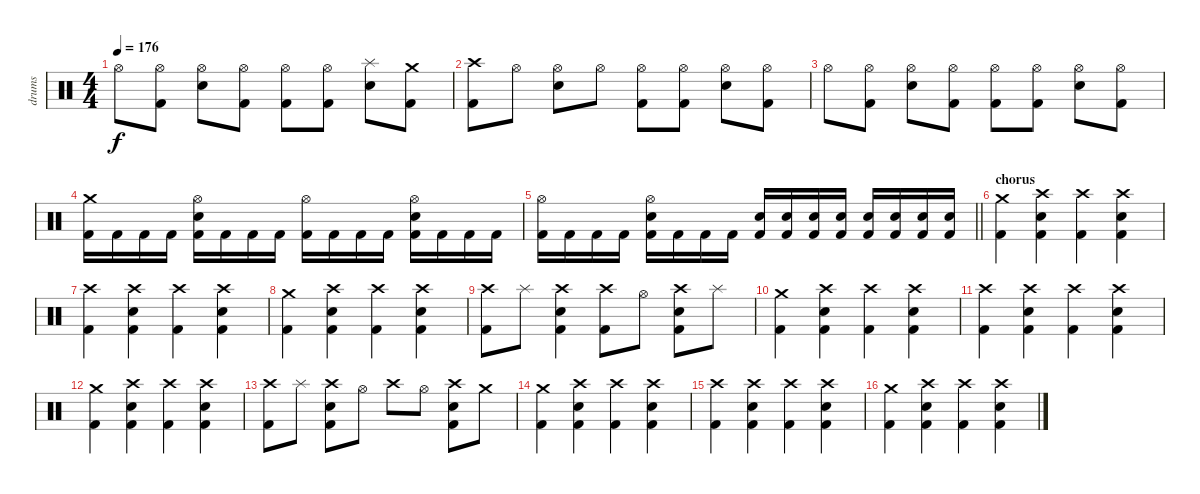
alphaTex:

\track ("drums" "drums") {instrument percussion}
\staff {score}
\articulation defaults
\ts (4 4)
\tempo 176
\clef neutral
\ks c "Hi-Hat (open)".8{dy f}
("Hi-Hat (open)" "Kick (hit) 2").8 ("Hi-Hat (open)" "Snare (hit) 2").8 ("Hi-Hat (open)" "Kick (hit) 2").8 ("Hi-Hat (open)" "Kick (hit) 2").8 ("Hi-Hat (open)" "Kick (hit) 2").8 ("Splash (hit)" "Snare (hit) 2").8 ("Crash medium (hit)" "Kick (hit) 2").8 |
("Crash high (hit)" "Kick (hit) 2").8 "Hi-Hat (open)".8 ("Hi-Hat (open)" "Snare (hit) 2").8 "Hi-Hat (open)".8 ("Hi-Hat (open)" "Kick (hit) 2").8 ("Hi-Hat (open)" "Kick (hit) 2").8 ("Hi-Hat (open)" "Snare (hit) 2").8 ("Hi-Hat (open)" "Kick (hit) 2").8 |
"Hi-Hat (open)".8 ("Hi-Hat (open)" "Kick (hit) 2").8 ("Hi-Hat (open)" "Snare (hit) 2").8 ("Hi-Hat (open)" "Kick (hit) 2").8 ("Hi-Hat (open)" "Kick (hit) 2").8 ("Hi-Hat (open)" "Kick (hit) 2").8 ("Hi-Hat (open)" "Snare (hit) 2").8 ("Hi-Hat (open)" "Kick (hit) 2").8 |
("Crash medium (hit)" "Kick (hit) 2").16 "Kick (hit) 2".16 "Kick (hit) 2".16 "Kick (hit) 2".16 ("Hi-Hat (open)" "Snare (hit) 2" "Kick (hit) 2").16 "Kick (hit) 2".16 "Kick (hit) 2".16 "Kick (hit) 2".16 ("Hi-Hat (open)" "Kick (hit) 2").16 "Kick (hit) 2".16 "Kick (hit) 2".16 "Kick (hit) 2".16 ("Hi-Hat (open)" "Snare (hit) 2" "Kick (hit) 2").16 "Kick (hit) 2".16 "Kick (hit) 2".16 "Kick (hit) 2".16 |
\barLineRight lightlight
("Hi-Hat (open)" "Kick (hit) 2").16 "Kick (hit) 2".16 "Kick (hit) 2".16 "Kick (hit) 2".16 ("Hi-Hat (open)" "Snare (hit) 2" "Kick (hit) 2").16 "Kick (hit) 2".16 "Kick (hit) 2".16 "Kick (hit) 2".16 ("Snare (hit) 2" "Kick (hit) 2").16 ("Snare (hit) 2" "Kick (hit) 2").16 ("Snare (hit) 2" "Kick (hit) 2").16 ("Snare (hit) 2" "Kick (hit) 2").16 ("Snare (hit) 2" "Kick (hit) 2").16 ("Snare (hit) 2" "Kick (hit) 2").16 ("Snare (hit) 2" "Kick (hit) 2").16 ("Snare (hit) 2" "Kick (hit) 2").16 |
\section ("" "chorus")
("Crash medium (hit)" "Kick (hit) 2").4 ("Crash high (hit)" "Snare (hit) 2" "Kick (hit) 2").4 ("Crash high (hit)" "Kick (hit) 2").4 ("Crash high (hit)" "Snare (hit) 2" "Kick (hit) 2").4 |
("Crash high (hit)" "Kick (hit) 2").4 ("Crash high (hit)" "Snare (hit) 2" "Kick (hit) 2").4 ("Crash high (hit)" "Kick (hit) 2").4 ("Crash high (hit)" "Snare (hit) 2" "Kick (hit) 2").4 |
("Crash medium (hit)" "Kick (hit) 2").4 ("Crash high (hit)" "Snare (hit) 2" "Kick (hit) 2").4 ("Crash high (hit)" "Kick (hit) 2").4 ("Crash high (hit)" "Snare (hit) 2" "Kick (hit) 2").4 |
("Crash high (hit)" "Kick (hit) 2").8 "Splash (hit)".8 ("Crash high (hit)" "Kick (hit) 2" "Snare (hit) 2").4 ("Crash high (hit)" "Kick (hit) 2").8 "Hi-Hat (open)".8 ("Crash high (hit)" "Snare (hit) 2" "Kick (hit) 2").8 "Splash (hit)".8 |
("Crash medium (hit)" "Kick (hit) 2").4 ("Crash high (hit)" "Snare (hit) 2" "Kick (hit) 2").4 ("Crash high (hit)" "Kick (hit) 2").4 ("Crash high (hit)" "Snare (hit) 2" "Kick (hit) 2").4 |
("Crash high (hit)" "Kick (hit) 2").4 ("Crash high (hit)" "Snare (hit) 2" "Kick (hit) 2").4 ("Crash high (hit)" "Kick (hit) 2").4 ("Crash high (hit)" "Snare (hit) 2" "Kick (hit) 2").4 |
("Crash medium (hit)" "Kick (hit) 2").4 ("Crash high (hit)" "Snare (hit) 2" "Kick (hit) 2").4 ("Crash high (hit)" "Kick (hit) 2").4 ("Crash high (hit)" "Snare (hit) 2" "Kick (hit) 2").4 |
("Crash high (hit)" "Kick (hit) 2").8 "Splash (hit)".8 ("Crash high (hit)" "Snare (hit) 2" "Kick (hit) 2").8 "Hi-Hat (open)".8 "Crash high (hit)".8 "Hi-Hat (open)".8 ("Crash high (hit)" "Snare (hit) 2" "Kick (hit) 2").8 "Crash medium (hit)".8 |
("Crash medium (hit)" "Kick (hit) 2").4 ("Crash high (hit)" "Snare (hit) 2" "Kick (hit) 2").4 ("Crash high (hit)" "Kick (hit) 2").4 ("Crash high (hit)" "Snare (hit) 2" "Kick (hit) 2").4 |
("Crash high (hit)" "Kick (hit) 2").4 ("Crash high (hit)" "Snare (hit) 2" "Kick (hit) 2").4 ("Crash high (hit)" "Kick (hit) 2").4 ("Crash high (hit)" "Snare (hit) 2" "Kick (hit) 2").4 |
("Crash medium (hit)" "Kick (hit) 2").4 ("Crash high (hit)" "Snare (hit) 2" "Kick (hit) 2").4 ("Crash high (hit)" "Kick (hit) 2").4 ("Crash high (hit)" "Snare (hit) 2" "Kick (hit) 2").4
